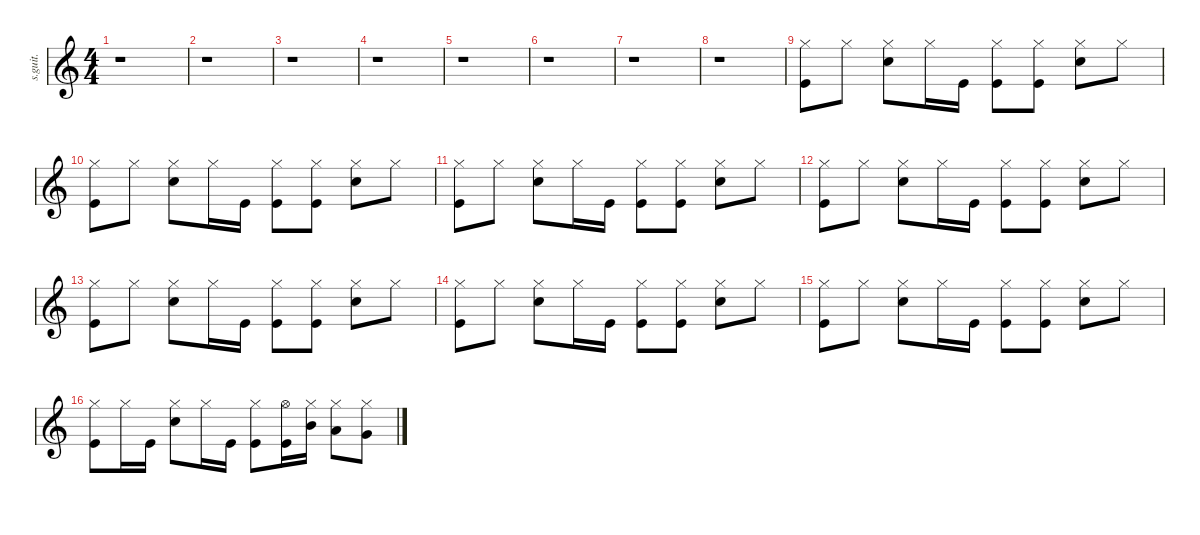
\defaultSystemsLayout 4
\hideDynamics
\bracketExtendMode nobrackets
\track ("Drumkit" "s.guit.") {instrument percussion}
\staff {score}
\articulation defaults
\ts (4 4)
\beaming (8 2 2 2 2)
\tempo (65 hide)
\clef g2
\ks c
r.1{dy mf} |
r.1 |
r.1 |
r.1 |
r.1 |
r.1 |
r.1 |
r.1 |
("Kick (hit)" "Hi-Hat (closed)").8{lyrics (0 "") lyrics (1 "") lyrics (2 "") lyrics (3 "") lyrics (4 "")} "Hi-Hat (closed)".8{lyrics (0 "") lyrics (1 "") lyrics (2 "") lyrics (3 "") lyrics (4 "")} ("Hi-Hat (closed)" "Snare (hit) 2").8{lyrics (0 "") lyrics (1 "") lyrics (2 "") lyrics (3 "") lyrics (4 "")} "Hi-Hat (closed)".16{lyrics (0 "") lyrics (1 "") lyrics (2 "") lyrics (3 "") lyrics (4 "")} "Kick (hit)".16{lyrics (0 "") lyrics (1 "") lyrics (2 "") lyrics (3 "") lyrics (4 "") dy p} ("Hi-Hat (closed)" "Kick (hit)").8{lyrics (0 "") lyrics (1 "") lyrics (2 "") lyrics (3 "") lyrics (4 "") dy mf} ("Kick (hit)" "Hi-Hat (closed)").8{lyrics (0 "") lyrics (1 "") lyrics (2 "") lyrics (3 "") lyrics (4 "")} ("Hi-Hat (closed)" "Snare (hit) 2").8{lyrics (0 "") lyrics (1 "") lyrics (2 "") lyrics (3 "") lyrics (4 "")} "Hi-Hat (closed)".8{lyrics (0 "") lyrics (1 "") lyrics (2 "") lyrics (3 "") lyrics (4 "")} |
("Kick (hit)" "Hi-Hat (closed)").8{lyrics (0 "") lyrics (1 "") lyrics (2 "") lyrics (3 "") lyrics (4 "")} "Hi-Hat (closed)".8{lyrics (0 "") lyrics (1 "") lyrics (2 "") lyrics (3 "") lyrics (4 "")} ("Hi-Hat (closed)" "Snare (hit) 2").8{lyrics (0 "") lyrics (1 "") lyrics (2 "") lyrics (3 "") lyrics (4 "")} "Hi-Hat (closed)".16{lyrics (0 "") lyrics (1 "") lyrics (2 "") lyrics (3 "") lyrics (4 "")} "Kick (hit)".16{lyrics (0 "") lyrics (1 "") lyrics (2 "") lyrics (3 "") lyrics (4 "") dy p} ("Hi-Hat (closed)" "Kick (hit)").8{lyrics (0 "") lyrics (1 "") lyrics (2 "") lyrics (3 "") lyrics (4 "") dy mf} ("Kick (hit)" "Hi-Hat (closed)").8{lyrics (0 "") lyrics (1 "") lyrics (2 "") lyrics (3 "") lyrics (4 "")} ("Hi-Hat (closed)" "Snare (hit) 2").8{lyrics (0 "") lyrics (1 "") lyrics (2 "") lyrics (3 "") lyrics (4 "")} "Hi-Hat (closed)".8{lyrics (0 "") lyrics (1 "") lyrics (2 "") lyrics (3 "") lyrics (4 "")} |
("Kick (hit)" "Hi-Hat (closed)").8{lyrics (0 "") lyrics (1 "") lyrics (2 "") lyrics (3 "") lyrics (4 "")} "Hi-Hat (closed)".8{lyrics (0 "") lyrics (1 "") lyrics (2 "") lyrics (3 "") lyrics (4 "")} ("Hi-Hat (closed)" "Snare (hit) 2").8{lyrics (0 "") lyrics (1 "") lyrics (2 "") lyrics (3 "") lyrics (4 "")} "Hi-Hat (closed)".16{lyrics (0 "") lyrics (1 "") lyrics (2 "") lyrics (3 "") lyrics (4 "")} "Kick (hit)".16{lyrics (0 "") lyrics (1 "") lyrics (2 "") lyrics (3 "") lyrics (4 "") dy p} ("Hi-Hat (closed)" "Kick (hit)").8{lyrics (0 "") lyrics (1 "") lyrics (2 "") lyrics (3 "") lyrics (4 "") dy mf} ("Kick (hit)" "Hi-Hat (closed)").8{lyrics (0 "") lyrics (1 "") lyrics (2 "") lyrics (3 "") lyrics (4 "")} ("Hi-Hat (closed)" "Snare (hit) 2").8{lyrics (0 "") lyrics (1 "") lyrics (2 "") lyrics (3 "") lyrics (4 "")} "Hi-Hat (closed)".8{lyrics (0 "") lyrics (1 "") lyrics (2 "") lyrics (3 "") lyrics (4 "")} |
("Kick (hit)" "Hi-Hat (closed)").8{lyrics (0 "") lyrics (1 "") lyrics (2 "") lyrics (3 "") lyrics (4 "")} "Hi-Hat (closed)".8{lyrics (0 "") lyrics (1 "") lyrics (2 "") lyrics (3 "") lyrics (4 "")} ("Hi-Hat (closed)" "Snare (hit) 2").8{lyrics (0 "") lyrics (1 "") lyrics (2 "") lyrics (3 "") lyrics (4 "")} "Hi-Hat (closed)".16{lyrics (0 "") lyrics (1 "") lyrics (2 "") lyrics (3 "") lyrics (4 "")} "Kick (hit)".16{lyrics (0 "") lyrics (1 "") lyrics (2 "") lyrics (3 "") lyrics (4 "") dy p} ("Hi-Hat (closed)" "Kick (hit)").8{lyrics (0 "") lyrics (1 "") lyrics (2 "") lyrics (3 "") lyrics (4 "") dy mf} ("Kick (hit)" "Hi-Hat (closed)").8{lyrics (0 "") lyrics (1 "") lyrics (2 "") lyrics (3 "") lyrics (4 "")} ("Hi-Hat (closed)" "Snare (hit) 2").8{lyrics (0 "") lyrics (1 "") lyrics (2 "") lyrics (3 "") lyrics (4 "")} "Hi-Hat (closed)".8{lyrics (0 "") lyrics (1 "") lyrics (2 "") lyrics (3 "") lyrics (4 "")} |
("Kick (hit)" "Hi-Hat (closed)").8{lyrics (0 "") lyrics (1 "") lyrics (2 "") lyrics (3 "") lyrics (4 "")} "Hi-Hat (closed)".8{lyrics (0 "") lyrics (1 "") lyrics (2 "") lyrics (3 "") lyrics (4 "")} ("Hi-Hat (closed)" "Snare (hit) 2").8{lyrics (0 "") lyrics (1 "") lyrics (2 "") lyrics (3 "") lyrics (4 "")} "Hi-Hat (closed)".16{lyrics (0 "") lyrics (1 "") lyrics (2 "") lyrics (3 "") lyrics (4 "")} "Kick (hit)".16{lyrics (0 "") lyrics (1 "") lyrics (2 "") lyrics (3 "") lyrics (4 "") dy p} ("Hi-Hat (closed)" "Kick (hit)").8{lyrics (0 "") lyrics (1 "") lyrics (2 "") lyrics (3 "") lyrics (4 "") dy mf} ("Kick (hit)" "Hi-Hat (closed)").8{lyrics (0 "") lyrics (1 "") lyrics (2 "") lyrics (3 "") lyrics (4 "")} ("Hi-Hat (closed)" "Snare (hit) 2").8{lyrics (0 "") lyrics (1 "") lyrics (2 "") lyrics (3 "") lyrics (4 "")} "Hi-Hat (closed)".8{lyrics (0 "") lyrics (1 "") lyrics (2 "") lyrics (3 "") lyrics (4 "")} |
("Kick (hit)" "Hi-Hat (closed)").8{lyrics (0 "") lyrics (1 "") lyrics (2 "") lyrics (3 "") lyrics (4 "")} "Hi-Hat (closed)".8{lyrics (0 "") lyrics (1 "") lyrics (2 "") lyrics (3 "") lyrics (4 "")} ("Hi-Hat (closed)" "Snare (hit) 2").8{lyrics (0 "") lyrics (1 "") lyrics (2 "") lyrics (3 "") lyrics (4 "")} "Hi-Hat (closed)".16{lyrics (0 "") lyrics (1 "") lyrics (2 "") lyrics (3 "") lyrics (4 "")} "Kick (hit)".16{lyrics (0 "") lyrics (1 "") lyrics (2 "") lyrics (3 "") lyrics (4 "") dy p} ("Hi-Hat (closed)" "Kick (hit)").8{lyrics (0 "") lyrics (1 "") lyrics (2 "") lyrics (3 "") lyrics (4 "") dy mf} ("Kick (hit)" "Hi-Hat (closed)").8{lyrics (0 "") lyrics (1 "") lyrics (2 "") lyrics (3 "") lyrics (4 "")} ("Hi-Hat (closed)" "Snare (hit) 2").8{lyrics (0 "") lyrics (1 "") lyrics (2 "") lyrics (3 "") lyrics (4 "")} "Hi-Hat (closed)".8{lyrics (0 "") lyrics (1 "") lyrics (2 "") lyrics (3 "") lyrics (4 "")} |
("Kick (hit)" "Hi-Hat (closed)").8{lyrics (0 "") lyrics (1 "") lyrics (2 "") lyrics (3 "") lyrics (4 "")} "Hi-Hat (closed)".8{lyrics (0 "") lyrics (1 "") lyrics (2 "") lyrics (3 "") lyrics (4 "")} ("Hi-Hat (closed)" "Snare (hit) 2").8{lyrics (0 "") lyrics (1 "") lyrics (2 "") lyrics (3 "") lyrics (4 "")} "Hi-Hat (closed)".16{lyrics (0 "") lyrics (1 "") lyrics (2 "") lyrics (3 "") lyrics (4 "")} "Kick (hit)".16{lyrics (0 "") lyrics (1 "") lyrics (2 "") lyrics (3 "") lyrics (4 "") dy p} ("Hi-Hat (closed)" "Kick (hit)").8{lyrics (0 "") lyrics (1 "") lyrics (2 "") lyrics (3 "") lyrics (4 "") dy mf} ("Kick (hit)" "Hi-Hat (closed)").8{lyrics (0 "") lyrics (1 "") lyrics (2 "") lyrics (3 "") lyrics (4 "")} ("Hi-Hat (closed)" "Snare (hit) 2").8{lyrics (0 "") lyrics (1 "") lyrics (2 "") lyrics (3 "") lyrics (4 "")} "Hi-Hat (closed)".8{lyrics (0 "") lyrics (1 "") lyrics (2 "") lyrics (3 "") lyrics (4 "")} |
("Kick (hit)" "Hi-Hat (closed)").8{lyrics (0 "") lyrics (1 "") lyrics (2 "") lyrics (3 "") lyrics (4 "")} "Hi-Hat (closed)".16{lyrics (0 "") lyrics (1 "") lyrics (2 "") lyrics (3 "") lyrics (4 "")} "Kick (hit)".16{lyrics (0 "") lyrics (1 "") lyrics (2 "") lyrics (3 "") lyrics (4 "") dy p} ("Hi-Hat (closed)" "Snare (hit) 2").8{lyrics (0 "") lyrics (1 "") lyrics (2 "") lyrics (3 "") lyrics (4 "") dy mf} "Hi-Hat (closed)".16{lyrics (0 "") lyrics (1 "") lyrics (2 "") lyrics (3 "") lyrics (4 "")} "Kick (hit)".16{lyrics (0 "") lyrics (1 "") lyrics (2 "") lyrics (3 "") lyrics (4 "")} ("Hi-Hat (closed)" "Kick (hit)").8{lyrics (0 "") lyrics (1 "") lyrics (2 "") lyrics (3 "") lyrics (4 "")} ("Kick (hit)" "Hi-Hat (open)").16{lyrics (0 "") lyrics (1 "") lyrics (2 "") lyrics (3 "") lyrics (4 "")} ("Hi-Hat (closed)" "Mid Tom (hit)").16{lyrics (0 "") lyrics (1 "") lyrics (2 "") lyrics (3 "") lyrics (4 "")} ("Hi-Hat (closed)" "Low Tom (hit)").8{lyrics (0 "") lyrics (1 "") lyrics (2 "") lyrics (3 "") lyrics (4 "")} ("Hi-Hat (closed)" "Very Low Tom (hit)").8{lyrics (0 "") lyrics (1 "") lyrics (2 "") lyrics (3 "") lyrics (4 "")}
